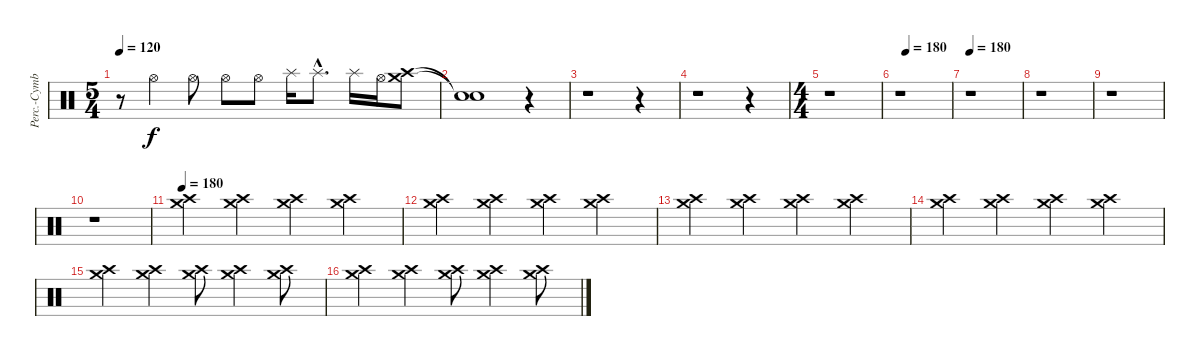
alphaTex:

\track ("Perc.-Cymbals 1" "Perc.-Cymb") {instrument percussion}
\staff {score}
\articulation defaults
\ts (5 4)
\tempo 120
\clef neutral
\ks c
r.8{dy f} "Hi-Hat (open)".4 "Hi-Hat (open)".8 "Hi-Hat (open)".8 "Hi-Hat (open)".8 "Splash (hit)".16 "Splash (hit)"{hac}.8{d} "Splash (hit)".16 "Hi-Hat (open)".16 ("Crash high (hit)" "Crash medium (hit)").8 |
("Snare (hit)"{t} "Snare (hit)"{t}).1 r.4 |
r.1 r.4 |
r.1 r.4 |
\ts (4 4)
r.1 |
\tempo (180 0.125)
r.1 |
\tempo 180
r.1 |
r.1 |
r.1 |
r.1 |
\tempo 180
("Crash high (hit)" "Crash medium (hit)").4 ("Crash high (hit)" "Crash medium (hit)").4 ("Crash high (hit)" "Crash medium (hit)").4 ("Crash high (hit)" "Crash medium (hit)").4 |
("Crash high (hit)" "Crash medium (hit)").4 ("Crash high (hit)" "Crash medium (hit)").4 ("Crash high (hit)" "Crash medium (hit)").4 ("Crash high (hit)" "Crash medium (hit)").4 |
("Crash high (hit)" "Crash medium (hit)").4 ("Crash high (hit)" "Crash medium (hit)").4 ("Crash high (hit)" "Crash medium (hit)").4 ("Crash high (hit)" "Crash medium (hit)").4 |
("Crash high (hit)" "Crash medium (hit)").4 ("Crash high (hit)" "Crash medium (hit)").4 ("Crash high (hit)" "Crash medium (hit)").4 ("Crash high (hit)" "Crash medium (hit)").4 |
("Crash high (hit)" "Crash medium (hit)").4 ("Crash high (hit)" "Crash medium (hit)").4 ("Crash high (hit)" "Crash medium (hit)").8 ("Crash high (hit)" "Crash medium (hit)").4 ("Crash high (hit)" "Crash medium (hit)").8 |
("Crash high (hit)" "Crash medium (hit)").4 ("Crash high (hit)" "Crash medium (hit)").4 ("Crash high (hit)" "Crash medium (hit)").8 ("Crash high (hit)" "Crash medium (hit)").4 ("Crash high (hit)" "Crash medium (hit)").8
